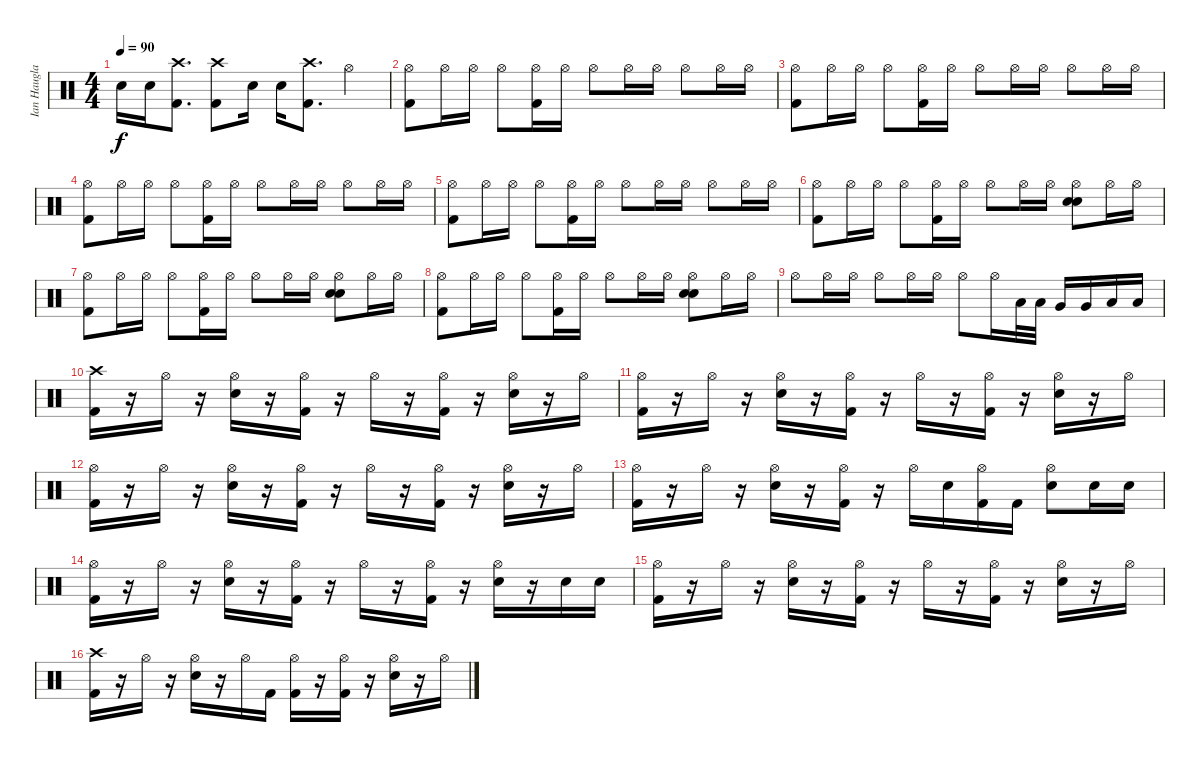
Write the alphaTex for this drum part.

\track ("Ian Haugland" "Ian Haugla") {instrument percussion}
\staff {score}
\articulation defaults
\ts (4 4)
\tempo 90
\clef neutral
\ks c "Electric Snare (hit)".16{dy f} "Electric Snare (hit)".16
("Crash high (hit)" "Kick (hit) 2").8{d} ("Crash high (hit)" "Kick (hit) 2").8 "Electric Snare (hit)".16 "Electric Snare (hit)".16 ("Crash high (hit)" "Kick (hit) 2").8{d} "Hi-Hat (open)".4 |
("Hi-Hat (open)" "Kick (hit) 2").8 "Hi-Hat (open)".16 "Hi-Hat (open)".16 "Hi-Hat (open)".8 ("Hi-Hat (open)" "Kick (hit) 2").16 "Hi-Hat (open)".16 "Hi-Hat (open)".8 "Hi-Hat (open)".16 "Hi-Hat (open)".16 "Hi-Hat (open)".8 "Hi-Hat (open)".16 "Hi-Hat (open)".16 |
("Hi-Hat (open)" "Kick (hit) 2").8 "Hi-Hat (open)".16 "Hi-Hat (open)".16 "Hi-Hat (open)".8 ("Hi-Hat (open)" "Kick (hit) 2").16 "Hi-Hat (open)".16 "Hi-Hat (open)".8 "Hi-Hat (open)".16 "Hi-Hat (open)".16 "Hi-Hat (open)".8 "Hi-Hat (open)".16 "Hi-Hat (open)".16 |
("Hi-Hat (open)" "Kick (hit) 2").8 "Hi-Hat (open)".16 "Hi-Hat (open)".16 "Hi-Hat (open)".8 ("Hi-Hat (open)" "Kick (hit) 2").16 "Hi-Hat (open)".16 "Hi-Hat (open)".8 "Hi-Hat (open)".16 "Hi-Hat (open)".16 "Hi-Hat (open)".8 "Hi-Hat (open)".16 "Hi-Hat (open)".16 |
("Hi-Hat (open)" "Kick (hit) 2").8 "Hi-Hat (open)".16 "Hi-Hat (open)".16 "Hi-Hat (open)".8 ("Hi-Hat (open)" "Kick (hit) 2").16 "Hi-Hat (open)".16 "Hi-Hat (open)".8 "Hi-Hat (open)".16 "Hi-Hat (open)".16 "Hi-Hat (open)".8 "Hi-Hat (open)".16 "Hi-Hat (open)".16 |
("Hi-Hat (open)" "Kick (hit) 2").8 "Hi-Hat (open)".16 "Hi-Hat (open)".16 "Hi-Hat (open)".8 ("Hi-Hat (open)" "Kick (hit) 2").16 "Hi-Hat (open)".16 "Hi-Hat (open)".8 "Hi-Hat (open)".16 "Hi-Hat (open)".16 ("Hi-Hat (open)" "Snare (hit) 2" "Electric Snare (hit)").8 "Hi-Hat (open)".16 "Hi-Hat (open)".16 |
("Hi-Hat (open)" "Kick (hit) 2").8 "Hi-Hat (open)".16 "Hi-Hat (open)".16 "Hi-Hat (open)".8 ("Hi-Hat (open)" "Kick (hit) 2").16 "Hi-Hat (open)".16 "Hi-Hat (open)".8 "Hi-Hat (open)".16 "Hi-Hat (open)".16 ("Hi-Hat (open)" "Snare (hit) 2" "Electric Snare (hit)").8 "Hi-Hat (open)".16 "Hi-Hat (open)".16 |
("Hi-Hat (open)" "Kick (hit) 2").8 "Hi-Hat (open)".16 "Hi-Hat (open)".16 "Hi-Hat (open)".8 ("Hi-Hat (open)" "Kick (hit) 2").16 "Hi-Hat (open)".16 "Hi-Hat (open)".8 "Hi-Hat (open)".16 "Hi-Hat (open)".16 ("Hi-Hat (open)" "Snare (hit) 2" "Electric Snare (hit)").8 "Hi-Hat (open)".16 "Hi-Hat (open)".16 |
"Hi-Hat (open)".8 "Hi-Hat (open)".16 "Hi-Hat (open)".16 "Hi-Hat (open)".8 "Hi-Hat (open)".16 "Hi-Hat (open)".16 "Hi-Hat (open)".8 "Hi-Hat (open)".16 "Low Tom (hit)".32 "Low Tom (hit)".32 "Very Low Tom (hit)".16 "Very Low Tom (hit)".16 "Low Floor Tom (hit)".16 "Low Floor Tom (hit)".16 |
("Crash high (hit)" "Kick (hit) 2").16 r.16 "Hi-Hat (open)".16 r.16 ("Hi-Hat (open)" "Electric Snare (hit)").16 r.16 ("Hi-Hat (open)" "Kick (hit) 2").16 r.16 "Hi-Hat (open)".16 r.16 ("Hi-Hat (open)" "Kick (hit) 2").16 r.16 ("Hi-Hat (open)" "Electric Snare (hit)").16 r.16 "Hi-Hat (open)".16 |
("Hi-Hat (open)" "Kick (hit) 2").16 r.16 "Hi-Hat (open)".16 r.16 ("Hi-Hat (open)" "Electric Snare (hit)").16 r.16 ("Hi-Hat (open)" "Kick (hit) 2").16 r.16 "Hi-Hat (open)".16 r.16 ("Hi-Hat (open)" "Kick (hit) 2").16 r.16 ("Hi-Hat (open)" "Electric Snare (hit)").16 r.16 "Hi-Hat (open)".16 |
("Hi-Hat (open)" "Kick (hit) 2").16 r.16 "Hi-Hat (open)".16 r.16 ("Hi-Hat (open)" "Electric Snare (hit)").16 r.16 ("Hi-Hat (open)" "Kick (hit) 2").16 r.16 "Hi-Hat (open)".16 r.16 ("Hi-Hat (open)" "Kick (hit) 2").16 r.16 ("Hi-Hat (open)" "Electric Snare (hit)").16 r.16 "Hi-Hat (open)".16 |
("Hi-Hat (open)" "Kick (hit) 2").16 r.16 "Hi-Hat (open)".16 r.16 ("Hi-Hat (open)" "Electric Snare (hit)").16 r.16 ("Hi-Hat (open)" "Kick (hit) 2").16 r.16 "Hi-Hat (open)".16 "Electric Snare (hit)".16 ("Hi-Hat (open)" "Kick (hit) 2").16 "Kick (hit) 2".16 ("Hi-Hat (open)" "Electric Snare (hit)").8 "Electric Snare (hit)".16 "Electric Snare (hit)".16 |
("Hi-Hat (open)" "Kick (hit) 2").16 r.16 "Hi-Hat (open)".16 r.16 ("Hi-Hat (open)" "Electric Snare (hit)").16 r.16 ("Hi-Hat (open)" "Kick (hit) 2").16 r.16 "Hi-Hat (open)".16 r.16 ("Hi-Hat (open)" "Kick (hit) 2").16 r.16 ("Hi-Hat (open)" "Electric Snare (hit)").16 r.16 "Electric Snare (hit)".16 "Electric Snare (hit)".16 |
("Hi-Hat (open)" "Kick (hit) 2").16 r.16 "Hi-Hat (open)".16 r.16 ("Hi-Hat (open)" "Electric Snare (hit)").16 r.16 ("Hi-Hat (open)" "Kick (hit) 2").16 r.16 "Hi-Hat (open)".16 r.16 ("Hi-Hat (open)" "Kick (hit) 2").16 r.16 ("Hi-Hat (open)" "Electric Snare (hit)").16 r.16 "Hi-Hat (open)".16 |
("Crash high (hit)" "Kick (hit) 2").16 r.16 "Hi-Hat (open)".16 r.16 ("Hi-Hat (open)" "Electric Snare (hit)").16 r.16 "Hi-Hat (open)".16 "Kick (hit) 2".16 ("Hi-Hat (open)" "Kick (hit) 2").16 r.16 ("Hi-Hat (open)" "Kick (hit) 2").16 r.16 ("Hi-Hat (open)" "Electric Snare (hit)").16 r.16 "Hi-Hat (open)".16
